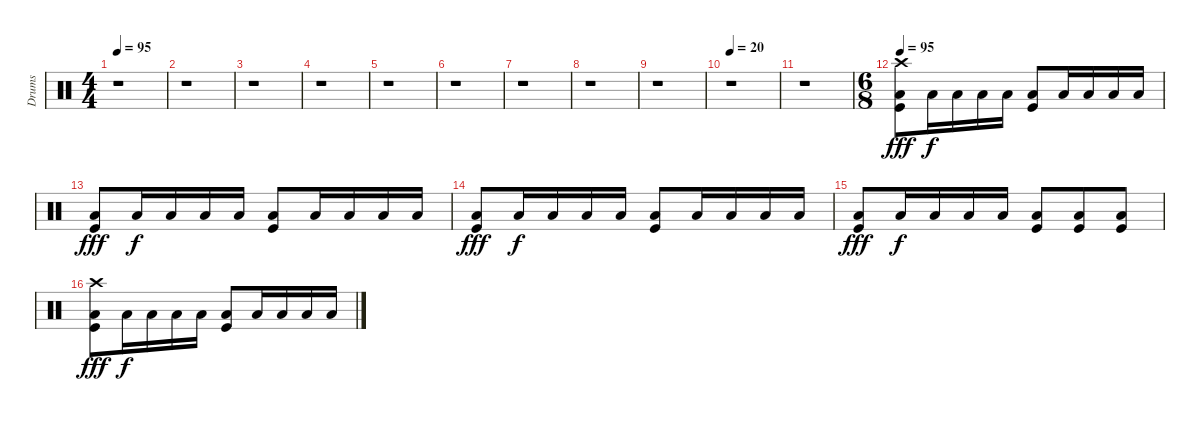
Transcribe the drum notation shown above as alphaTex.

\track ("Drums" "Drums") {instrument percussion}
\staff {score}
\articulation defaults
\ts (4 4)
\tempo 95
\tempo 80
\tempo 95
\clef neutral
\ks c
r.1{dy fff} |
r.1 |
r.1 |
r.1 |
r.1 |
r.1 |
r.1 |
r.1 |
r.1 |
\tempo 20
r.1 |
r.1 |
\ts (6 8)
\tempo 95
("Crash high (hit)" "Low Tom (hit)" "Kick (hit)").8 "Low Tom (hit)".16{dy f} "Low Tom (hit)".16 "Low Tom (hit)".16 "Low Tom (hit)".16 ("Low Tom (hit)" "Kick (hit)").8 "Low Tom (hit)".16 "Low Tom (hit)".16 "Low Tom (hit)".16 "Low Tom (hit)".16 |
("Low Tom (hit)" "Kick (hit)").8{dy fff} "Low Tom (hit)".16{dy f} "Low Tom (hit)".16 "Low Tom (hit)".16 "Low Tom (hit)".16 ("Low Tom (hit)" "Kick (hit)").8 "Low Tom (hit)".16 "Low Tom (hit)".16 "Low Tom (hit)".16 "Low Tom (hit)".16 |
("Low Tom (hit)" "Kick (hit)").8{dy fff} "Low Tom (hit)".16{dy f} "Low Tom (hit)".16 "Low Tom (hit)".16 "Low Tom (hit)".16 ("Low Tom (hit)" "Kick (hit)").8 "Low Tom (hit)".16 "Low Tom (hit)".16 "Low Tom (hit)".16 "Low Tom (hit)".16 |
("Low Tom (hit)" "Kick (hit)").8{dy fff} "Low Tom (hit)".16{dy f} "Low Tom (hit)".16 "Low Tom (hit)".16 "Low Tom (hit)".16 ("Low Tom (hit)" "Kick (hit)").8 ("Low Tom (hit)" "Kick (hit)").8 ("Low Tom (hit)" "Kick (hit)").8 |
("Crash high (hit)" "Low Tom (hit)" "Kick (hit)").8{dy fff} "Low Tom (hit)".16{dy f} "Low Tom (hit)".16 "Low Tom (hit)".16 "Low Tom (hit)".16 ("Low Tom (hit)" "Kick (hit)").8 "Low Tom (hit)".16 "Low Tom (hit)".16 "Low Tom (hit)".16 "Low Tom (hit)".16
